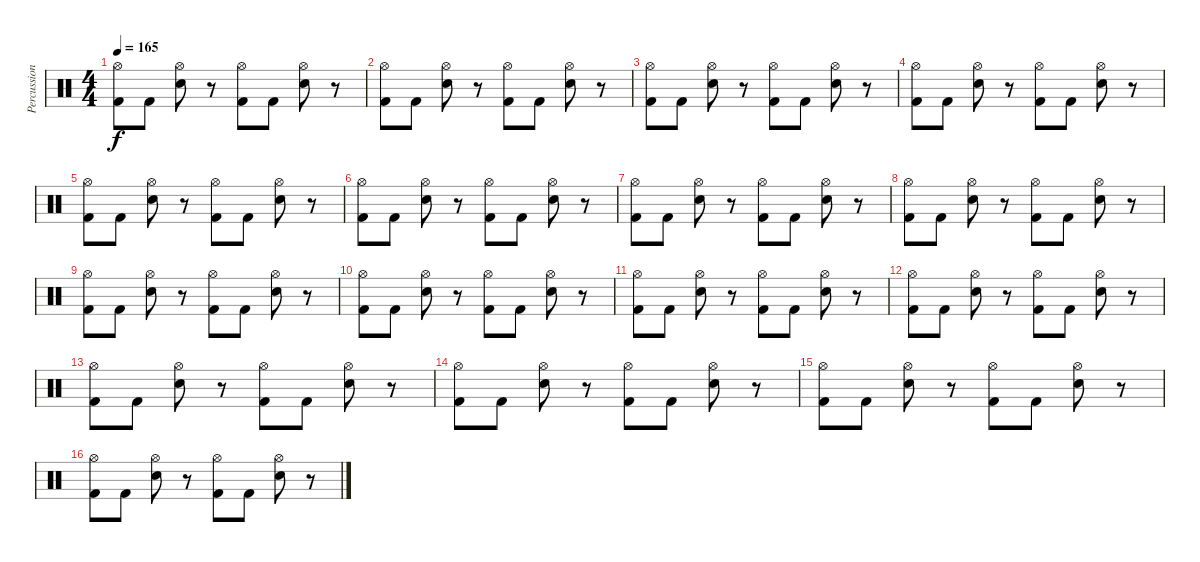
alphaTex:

\track ("Percussion" "Percussion") {instrument percussion}
\staff {score}
\articulation defaults
\ts (4 4)
\tempo 165
\clef neutral
\ks c
("Hi-Hat (open)" "Kick (hit) 2").8{dy f} "Kick (hit) 2".8 ("Hi-Hat (open)" "Electric Snare (hit)").8 r.8 ("Hi-Hat (open)" "Kick (hit) 2").8 "Kick (hit) 2".8 ("Hi-Hat (open)" "Electric Snare (hit)").8 r.8 |
("Hi-Hat (open)" "Kick (hit) 2").8 "Kick (hit) 2".8 ("Hi-Hat (open)" "Electric Snare (hit)").8 r.8 ("Hi-Hat (open)" "Kick (hit) 2").8 "Kick (hit) 2".8 ("Hi-Hat (open)" "Electric Snare (hit)").8 r.8 |
("Hi-Hat (open)" "Kick (hit) 2").8 "Kick (hit) 2".8 ("Hi-Hat (open)" "Electric Snare (hit)").8 r.8 ("Hi-Hat (open)" "Kick (hit) 2").8 "Kick (hit) 2".8 ("Hi-Hat (open)" "Electric Snare (hit)").8 r.8 |
("Hi-Hat (open)" "Kick (hit) 2").8 "Kick (hit) 2".8 ("Hi-Hat (open)" "Electric Snare (hit)").8 r.8 ("Hi-Hat (open)" "Kick (hit) 2").8 "Kick (hit) 2".8 ("Hi-Hat (open)" "Electric Snare (hit)").8 r.8 |
("Hi-Hat (open)" "Kick (hit) 2").8 "Kick (hit) 2".8 ("Hi-Hat (open)" "Electric Snare (hit)").8 r.8 ("Hi-Hat (open)" "Kick (hit) 2").8 "Kick (hit) 2".8 ("Hi-Hat (open)" "Electric Snare (hit)").8 r.8 |
("Hi-Hat (open)" "Kick (hit) 2").8 "Kick (hit) 2".8 ("Hi-Hat (open)" "Electric Snare (hit)").8 r.8 ("Hi-Hat (open)" "Kick (hit) 2").8 "Kick (hit) 2".8 ("Hi-Hat (open)" "Electric Snare (hit)").8 r.8 |
("Hi-Hat (open)" "Kick (hit) 2").8 "Kick (hit) 2".8 ("Hi-Hat (open)" "Electric Snare (hit)").8 r.8 ("Hi-Hat (open)" "Kick (hit) 2").8 "Kick (hit) 2".8 ("Hi-Hat (open)" "Electric Snare (hit)").8 r.8 |
("Hi-Hat (open)" "Kick (hit) 2").8 "Kick (hit) 2".8 ("Hi-Hat (open)" "Electric Snare (hit)").8 r.8 ("Hi-Hat (open)" "Kick (hit) 2").8 "Kick (hit) 2".8 ("Hi-Hat (open)" "Electric Snare (hit)").8 r.8 |
("Hi-Hat (open)" "Kick (hit) 2").8 "Kick (hit) 2".8 ("Hi-Hat (open)" "Electric Snare (hit)").8 r.8 ("Hi-Hat (open)" "Kick (hit) 2").8 "Kick (hit) 2".8 ("Hi-Hat (open)" "Electric Snare (hit)").8 r.8 |
("Hi-Hat (open)" "Kick (hit) 2").8 "Kick (hit) 2".8 ("Hi-Hat (open)" "Electric Snare (hit)").8 r.8 ("Hi-Hat (open)" "Kick (hit) 2").8 "Kick (hit) 2".8 ("Hi-Hat (open)" "Electric Snare (hit)").8 r.8 |
("Hi-Hat (open)" "Kick (hit) 2").8 "Kick (hit) 2".8 ("Hi-Hat (open)" "Electric Snare (hit)").8 r.8 ("Hi-Hat (open)" "Kick (hit) 2").8 "Kick (hit) 2".8 ("Hi-Hat (open)" "Electric Snare (hit)").8 r.8 |
("Hi-Hat (open)" "Kick (hit) 2").8 "Kick (hit) 2".8 ("Hi-Hat (open)" "Electric Snare (hit)").8 r.8 ("Hi-Hat (open)" "Kick (hit) 2").8 "Kick (hit) 2".8 ("Hi-Hat (open)" "Electric Snare (hit)").8 r.8 |
("Hi-Hat (open)" "Kick (hit) 2").8 "Kick (hit) 2".8 ("Hi-Hat (open)" "Electric Snare (hit)").8 r.8 ("Hi-Hat (open)" "Kick (hit) 2").8 "Kick (hit) 2".8 ("Hi-Hat (open)" "Electric Snare (hit)").8 r.8 |
("Hi-Hat (open)" "Kick (hit) 2").8 "Kick (hit) 2".8 ("Hi-Hat (open)" "Electric Snare (hit)").8 r.8 ("Hi-Hat (open)" "Kick (hit) 2").8 "Kick (hit) 2".8 ("Hi-Hat (open)" "Electric Snare (hit)").8 r.8 |
("Hi-Hat (open)" "Kick (hit) 2").8 "Kick (hit) 2".8 ("Hi-Hat (open)" "Electric Snare (hit)").8 r.8 ("Hi-Hat (open)" "Kick (hit) 2").8 "Kick (hit) 2".8 ("Hi-Hat (open)" "Electric Snare (hit)").8 r.8 |
("Hi-Hat (open)" "Kick (hit) 2").8 "Kick (hit) 2".8 ("Hi-Hat (open)" "Electric Snare (hit)").8 r.8 ("Hi-Hat (open)" "Kick (hit) 2").8 "Kick (hit) 2".8 ("Hi-Hat (open)" "Electric Snare (hit)").8 r.8
